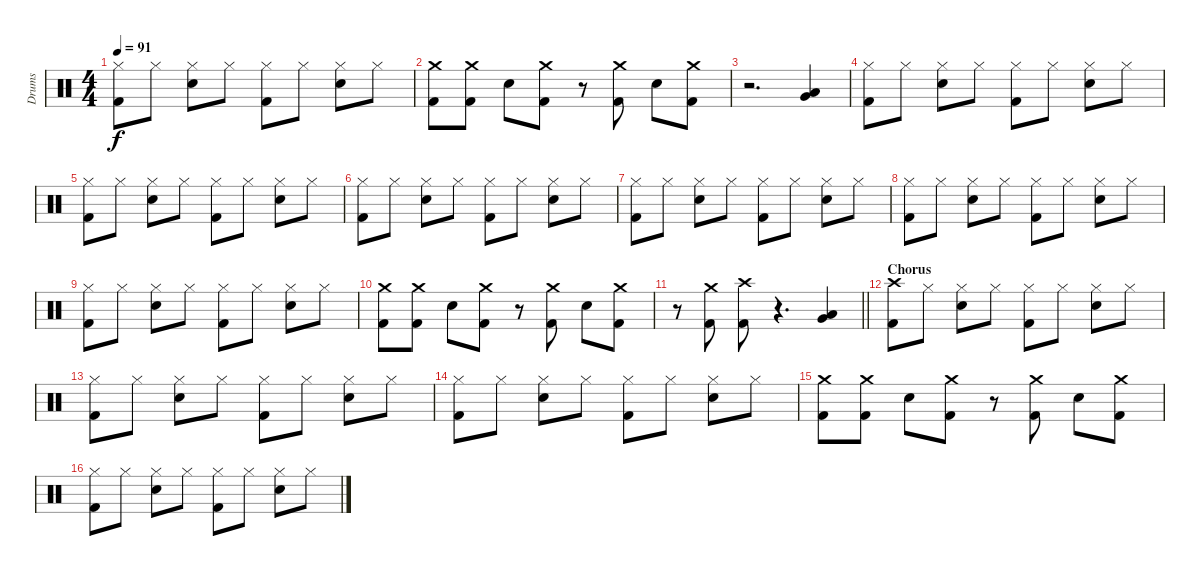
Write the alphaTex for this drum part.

\track ("Drums" "Drums") {instrument percussion}
\staff {score}
\articulation defaults
\ts (4 4)
\tempo 91
\clef neutral
\ks c
("Hi-Hat (closed)" "Kick (hit) 2").8{dy f} "Hi-Hat (closed)".8 ("Hi-Hat (closed)" "Electric Snare (hit)").8 "Hi-Hat (closed)".8 ("Hi-Hat (closed)" "Kick (hit) 2").8 "Hi-Hat (closed)".8 ("Hi-Hat (closed)" "Electric Snare (hit)").8 "Hi-Hat (closed)".8 |
("Crash medium (hit)" "Kick (hit) 2").8 ("Crash medium (hit)" "Kick (hit) 2").8 "Electric Snare (hit)".8 ("Crash medium (hit)" "Kick (hit) 2").8 r.8 ("Crash medium (hit)" "Kick (hit) 2").8 "Electric Snare (hit)".8 ("Crash medium (hit)" "Kick (hit) 2").8 |
r.2{d} ("Very Low Tom (hit)" "Low Floor Tom (hit)").4 |
("Hi-Hat (closed)" "Kick (hit) 2").8 "Hi-Hat (closed)".8 ("Hi-Hat (closed)" "Electric Snare (hit)").8 "Hi-Hat (closed)".8 ("Hi-Hat (closed)" "Kick (hit) 2").8 "Hi-Hat (closed)".8 ("Hi-Hat (closed)" "Electric Snare (hit)").8 "Hi-Hat (closed)".8 |
("Hi-Hat (closed)" "Kick (hit) 2").8 "Hi-Hat (closed)".8 ("Hi-Hat (closed)" "Electric Snare (hit)").8 "Hi-Hat (closed)".8 ("Hi-Hat (closed)" "Kick (hit) 2").8 "Hi-Hat (closed)".8 ("Hi-Hat (closed)" "Electric Snare (hit)").8 "Hi-Hat (closed)".8 |
("Hi-Hat (closed)" "Kick (hit) 2").8 "Hi-Hat (closed)".8 ("Hi-Hat (closed)" "Electric Snare (hit)").8 "Hi-Hat (closed)".8 ("Hi-Hat (closed)" "Kick (hit) 2").8 "Hi-Hat (closed)".8 ("Hi-Hat (closed)" "Electric Snare (hit)").8 "Hi-Hat (closed)".8 |
("Hi-Hat (closed)" "Kick (hit) 2").8 "Hi-Hat (closed)".8 ("Hi-Hat (closed)" "Electric Snare (hit)").8 "Hi-Hat (closed)".8 ("Hi-Hat (closed)" "Kick (hit) 2").8 "Hi-Hat (closed)".8 ("Hi-Hat (closed)" "Electric Snare (hit)").8 "Hi-Hat (closed)".8 |
("Hi-Hat (closed)" "Kick (hit) 2").8 "Hi-Hat (closed)".8 ("Hi-Hat (closed)" "Electric Snare (hit)").8 "Hi-Hat (closed)".8 ("Hi-Hat (closed)" "Kick (hit) 2").8 "Hi-Hat (closed)".8 ("Hi-Hat (closed)" "Electric Snare (hit)").8 "Hi-Hat (closed)".8 |
("Hi-Hat (closed)" "Kick (hit) 2").8 "Hi-Hat (closed)".8 ("Hi-Hat (closed)" "Electric Snare (hit)").8 "Hi-Hat (closed)".8 ("Hi-Hat (closed)" "Kick (hit) 2").8 "Hi-Hat (closed)".8 ("Hi-Hat (closed)" "Electric Snare (hit)").8 "Hi-Hat (closed)".8 |
("Crash medium (hit)" "Kick (hit) 2").8 ("Crash medium (hit)" "Kick (hit) 2").8 "Electric Snare (hit)".8 ("Crash medium (hit)" "Kick (hit) 2").8 r.8 ("Crash medium (hit)" "Kick (hit) 2").8 "Electric Snare (hit)".8 ("Crash medium (hit)" "Kick (hit) 2").8 |
\barLineRight lightlight
r.8 ("Crash medium (hit)" "Kick (hit) 2").8 ("Crash high (hit)" "Kick (hit) 2").8 r.4{d} ("Very Low Tom (hit)" "Low Floor Tom (hit)").4 |
\section ("" "Chorus")
("Crash high (hit)" "Kick (hit) 2").8 "Hi-Hat (closed)".8 ("Hi-Hat (closed)" "Electric Snare (hit)").8 "Hi-Hat (closed)".8 ("Hi-Hat (closed)" "Kick (hit) 2").8 "Hi-Hat (closed)".8 ("Hi-Hat (closed)" "Electric Snare (hit)").8 "Hi-Hat (closed)".8 |
("Hi-Hat (closed)" "Kick (hit) 2").8 "Hi-Hat (closed)".8 ("Hi-Hat (closed)" "Electric Snare (hit)").8 "Hi-Hat (closed)".8 ("Hi-Hat (closed)" "Kick (hit) 2").8 "Hi-Hat (closed)".8 ("Hi-Hat (closed)" "Electric Snare (hit)").8 "Hi-Hat (closed)".8 |
("Hi-Hat (closed)" "Kick (hit) 2").8 "Hi-Hat (closed)".8 ("Hi-Hat (closed)" "Electric Snare (hit)").8 "Hi-Hat (closed)".8 ("Hi-Hat (closed)" "Kick (hit) 2").8 "Hi-Hat (closed)".8 ("Hi-Hat (closed)" "Electric Snare (hit)").8 "Hi-Hat (closed)".8 |
("Crash medium (hit)" "Kick (hit) 2").8 ("Crash medium (hit)" "Kick (hit) 2").8 "Electric Snare (hit)".8 ("Crash medium (hit)" "Kick (hit) 2").8 r.8 ("Crash medium (hit)" "Kick (hit) 2").8 "Electric Snare (hit)".8 ("Crash medium (hit)" "Kick (hit) 2").8 |
("Hi-Hat (closed)" "Kick (hit) 2").8 "Hi-Hat (closed)".8 ("Hi-Hat (closed)" "Electric Snare (hit)").8 "Hi-Hat (closed)".8 ("Hi-Hat (closed)" "Kick (hit) 2").8 "Hi-Hat (closed)".8 ("Hi-Hat (closed)" "Electric Snare (hit)").8 "Hi-Hat (closed)".8
